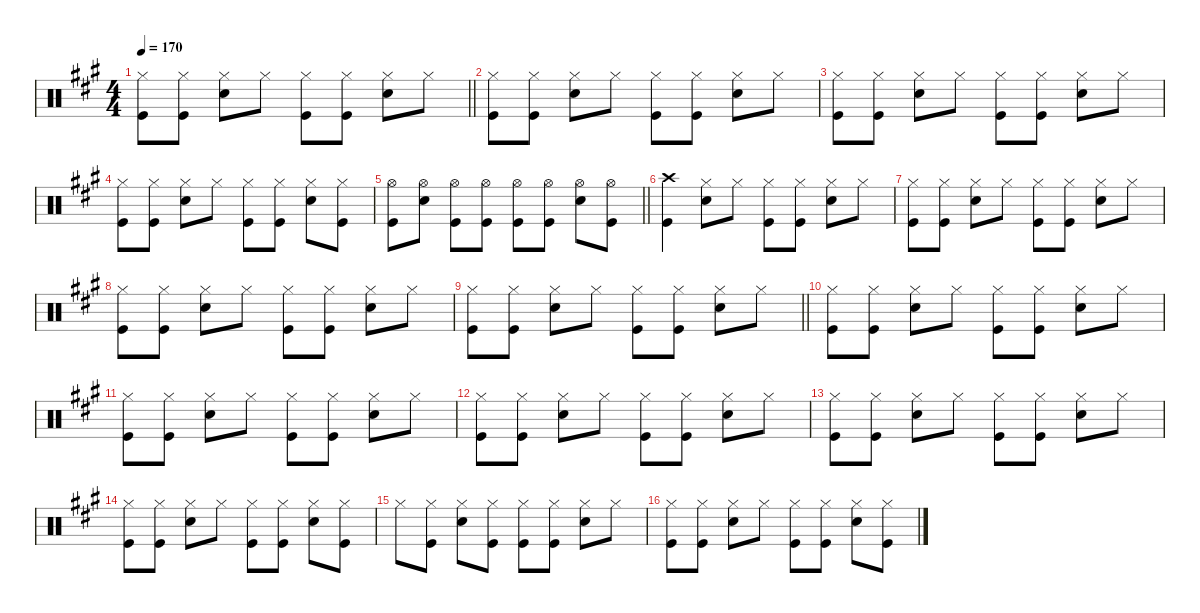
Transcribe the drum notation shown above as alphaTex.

\defaultSystemsLayout 4
\hideDynamics
\bracketExtendMode nobrackets
\singleTrackTrackNamePolicy hidden
\multiTrackTrackNamePolicy hidden
\firstSystemTrackNameMode fullname
\firstSystemTrackNameOrientation horizontal
\otherSystemsTrackNameOrientation horizontal
\track ("Percussion" "drm.") {defaultSystemsLayout 4 instrument percussion}
\staff {score}
\articulation defaults
\ts (4 4)
\tempo 170
\clef neutral
\barLineRight lightlight
\ks a
("Hi-Hat (closed)"{acc forcenatural} "Kick (hit)"{acc forcenatural}).8{dy f beam Down} ("Hi-Hat (closed)"{acc forcenatural} "Kick (hit)"{acc forcenatural}).8{beam Down} ("Hi-Hat (closed)"{acc forcenatural} "Snare (hit) 2"{acc forcenatural}).8{beam Down} "Hi-Hat (closed)"{acc forcenatural}.8{beam Down} ("Hi-Hat (closed)"{acc forcenatural} "Kick (hit)"{acc forcenatural}).8{beam Down} ("Hi-Hat (closed)"{acc forcenatural} "Kick (hit)"{acc forcenatural}).8{beam Down} ("Hi-Hat (closed)"{acc forcenatural} "Snare (hit) 2"{acc forcenatural}).8{beam Down} "Hi-Hat (closed)"{acc forcenatural}.8{beam Down} |
("Hi-Hat (closed)"{acc forcenatural} "Kick (hit)"{acc forcenatural}).8{beam Down} ("Hi-Hat (closed)"{acc forcenatural} "Kick (hit)"{acc forcenatural}).8{beam Down} ("Hi-Hat (closed)"{acc forcenatural} "Snare (hit) 2"{acc forcenatural}).8{beam Down} "Hi-Hat (closed)"{acc forcenatural}.8{beam Down} ("Hi-Hat (closed)"{acc forcenatural} "Kick (hit)"{acc forcenatural}).8{beam Down} ("Hi-Hat (closed)"{acc forcenatural} "Kick (hit)"{acc forcenatural}).8{beam Down} ("Hi-Hat (closed)"{acc forcenatural} "Snare (hit) 2"{acc forcenatural}).8{beam Down} "Hi-Hat (closed)"{acc forcenatural}.8{beam Down} |
("Hi-Hat (closed)"{acc forcenatural} "Kick (hit)"{acc forcenatural}).8{beam Down} ("Hi-Hat (closed)"{acc forcenatural} "Kick (hit)"{acc forcenatural}).8{beam Down} ("Hi-Hat (closed)"{acc forcenatural} "Snare (hit) 2"{acc forcenatural}).8{beam Down} "Hi-Hat (closed)"{acc forcenatural}.8{beam Down} ("Hi-Hat (closed)"{acc forcenatural} "Kick (hit)"{acc forcenatural}).8{beam Down} ("Hi-Hat (closed)"{acc forcenatural} "Kick (hit)"{acc forcenatural}).8{beam Down} ("Hi-Hat (closed)"{acc forcenatural} "Snare (hit) 2"{acc forcenatural}).8{beam Down} "Hi-Hat (closed)"{acc forcenatural}.8{beam Down} |
("Hi-Hat (closed)"{acc forcenatural} "Kick (hit)"{acc forcenatural}).8{beam Down} ("Hi-Hat (closed)"{acc forcenatural} "Kick (hit)"{acc forcenatural}).8{beam Down} ("Hi-Hat (closed)"{acc forcenatural} "Snare (hit) 2"{acc forcenatural}).8{beam Down} "Hi-Hat (closed)"{acc forcenatural}.8{beam Down} ("Hi-Hat (closed)"{acc forcenatural} "Kick (hit)"{acc forcenatural}).8{beam Down} ("Hi-Hat (closed)"{acc forcenatural} "Kick (hit)"{acc forcenatural}).8{beam Down} ("Hi-Hat (closed)"{acc forcenatural} "Snare (hit) 2"{acc forcenatural}).8{beam Down} ("Hi-Hat (closed)"{acc forcenatural} "Kick (hit)"{acc forcenatural}).8{beam Down} |
\barLineRight lightlight
("Hi-Hat (open)"{acc forcenatural} "Kick (hit)"{acc forcenatural}).8{beam Down} ("Hi-Hat (open)"{acc forcenatural} "Snare (hit) 2"{acc forcenatural}).8{beam Down} ("Hi-Hat (open)"{acc forcenatural} "Kick (hit)"{acc forcenatural}).8{beam Down} ("Hi-Hat (open)"{acc forcenatural} "Kick (hit)"{acc forcenatural}).8{beam Down} ("Hi-Hat (open)"{acc forcenatural} "Kick (hit)"{acc forcenatural}).8{beam Down} ("Hi-Hat (open)"{acc forcenatural} "Kick (hit)"{acc forcenatural}).8{beam Down} ("Hi-Hat (open)"{acc forcenatural} "Snare (hit) 2"{acc forcenatural}).8{beam Down} ("Hi-Hat (open)"{acc forcenatural} "Kick (hit)"{acc forcenatural}).8{beam Down} |
("Crash high (hit)"{acc forcenatural} "Kick (hit)"{acc forcenatural}).4{beam Down} ("Hi-Hat (closed)"{acc forcenatural} "Snare (hit) 2"{acc forcenatural}).8{beam Down} "Hi-Hat (closed)"{acc forcenatural}.8{beam Down} ("Hi-Hat (closed)"{acc forcenatural} "Kick (hit)"{acc forcenatural}).8{beam Down} ("Hi-Hat (closed)"{acc forcenatural} "Kick (hit)"{acc forcenatural}).8{beam Down} ("Hi-Hat (closed)"{acc forcenatural} "Snare (hit) 2"{acc forcenatural}).8{beam Down} "Hi-Hat (closed)"{acc forcenatural}.8{beam Down} |
("Hi-Hat (closed)"{acc forcenatural} "Kick (hit)"{acc forcenatural}).8{beam Down} ("Hi-Hat (closed)"{acc forcenatural} "Kick (hit)"{acc forcenatural}).8{beam Down} ("Hi-Hat (closed)"{acc forcenatural} "Snare (hit) 2"{acc forcenatural}).8{beam Down} "Hi-Hat (closed)"{acc forcenatural}.8{beam Down} ("Hi-Hat (closed)"{acc forcenatural} "Kick (hit)"{acc forcenatural}).8{beam Down} ("Hi-Hat (closed)"{acc forcenatural} "Kick (hit)"{acc forcenatural}).8{beam Down} ("Hi-Hat (closed)"{acc forcenatural} "Snare (hit) 2"{acc forcenatural}).8{beam Down} "Hi-Hat (closed)"{acc forcenatural}.8{beam Down} |
("Hi-Hat (closed)"{acc forcenatural} "Kick (hit)"{acc forcenatural}).8{beam Down} ("Hi-Hat (closed)"{acc forcenatural} "Kick (hit)"{acc forcenatural}).8{beam Down} ("Hi-Hat (closed)"{acc forcenatural} "Snare (hit) 2"{acc forcenatural}).8{beam Down} "Hi-Hat (closed)"{acc forcenatural}.8{beam Down} ("Hi-Hat (closed)"{acc forcenatural} "Kick (hit)"{acc forcenatural}).8{beam Down} ("Hi-Hat (closed)"{acc forcenatural} "Kick (hit)"{acc forcenatural}).8{beam Down} ("Hi-Hat (closed)"{acc forcenatural} "Snare (hit) 2"{acc forcenatural}).8{beam Down} "Hi-Hat (closed)"{acc forcenatural}.8{beam Down} |
\barLineRight lightlight
("Hi-Hat (closed)"{acc forcenatural} "Kick (hit)"{acc forcenatural}).8{beam Down} ("Hi-Hat (closed)"{acc forcenatural} "Kick (hit)"{acc forcenatural}).8{beam Down} ("Hi-Hat (closed)"{acc forcenatural} "Snare (hit) 2"{acc forcenatural}).8{beam Down} "Hi-Hat (closed)"{acc forcenatural}.8{beam Down} ("Hi-Hat (closed)"{acc forcenatural} "Kick (hit)"{acc forcenatural}).8{beam Down} ("Hi-Hat (closed)"{acc forcenatural} "Kick (hit)"{acc forcenatural}).8{beam Down} ("Hi-Hat (closed)"{acc forcenatural} "Snare (hit) 2"{acc forcenatural}).8{beam Down} "Hi-Hat (closed)"{acc forcenatural}.8{beam Down} |
("Hi-Hat (closed)"{acc forcenatural} "Kick (hit)"{acc forcenatural}).8{beam Down} ("Hi-Hat (closed)"{acc forcenatural} "Kick (hit)"{acc forcenatural}).8{beam Down} ("Hi-Hat (closed)"{acc forcenatural} "Snare (hit) 2"{acc forcenatural}).8{beam Down} "Hi-Hat (closed)"{acc forcenatural}.8{beam Down} ("Hi-Hat (closed)"{acc forcenatural} "Kick (hit)"{acc forcenatural}).8{beam Down} ("Hi-Hat (closed)"{acc forcenatural} "Kick (hit)"{acc forcenatural}).8{beam Down} ("Hi-Hat (closed)"{acc forcenatural} "Snare (hit) 2"{acc forcenatural}).8{beam Down} "Hi-Hat (closed)"{acc forcenatural}.8{beam Down} |
("Hi-Hat (closed)"{acc forcenatural} "Kick (hit)"{acc forcenatural}).8{beam Down} ("Hi-Hat (closed)"{acc forcenatural} "Kick (hit)"{acc forcenatural}).8{beam Down} ("Hi-Hat (closed)"{acc forcenatural} "Snare (hit) 2"{acc forcenatural}).8{beam Down} "Hi-Hat (closed)"{acc forcenatural}.8{beam Down} ("Hi-Hat (closed)"{acc forcenatural} "Kick (hit)"{acc forcenatural}).8{beam Down} ("Hi-Hat (closed)"{acc forcenatural} "Kick (hit)"{acc forcenatural}).8{beam Down} ("Hi-Hat (closed)"{acc forcenatural} "Snare (hit) 2"{acc forcenatural}).8{beam Down} "Hi-Hat (closed)"{acc forcenatural}.8{beam Down} |
("Hi-Hat (closed)"{acc forcenatural} "Kick (hit)"{acc forcenatural}).8{beam Down} ("Hi-Hat (closed)"{acc forcenatural} "Kick (hit)"{acc forcenatural}).8{beam Down} ("Hi-Hat (closed)"{acc forcenatural} "Snare (hit) 2"{acc forcenatural}).8{beam Down} "Hi-Hat (closed)"{acc forcenatural}.8{beam Down} ("Hi-Hat (closed)"{acc forcenatural} "Kick (hit)"{acc forcenatural}).8{beam Down} ("Hi-Hat (closed)"{acc forcenatural} "Kick (hit)"{acc forcenatural}).8{beam Down} ("Hi-Hat (closed)"{acc forcenatural} "Snare (hit) 2"{acc forcenatural}).8{beam Down} "Hi-Hat (closed)"{acc forcenatural}.8{beam Down} |
("Hi-Hat (closed)"{acc forcenatural} "Kick (hit)"{acc forcenatural}).8{beam Down} ("Hi-Hat (closed)"{acc forcenatural} "Kick (hit)"{acc forcenatural}).8{beam Down} ("Hi-Hat (closed)"{acc forcenatural} "Snare (hit) 2"{acc forcenatural}).8{beam Down} "Hi-Hat (closed)"{acc forcenatural}.8{beam Down} ("Hi-Hat (closed)"{acc forcenatural} "Kick (hit)"{acc forcenatural}).8{beam Down} ("Hi-Hat (closed)"{acc forcenatural} "Kick (hit)"{acc forcenatural}).8{beam Down} ("Hi-Hat (closed)"{acc forcenatural} "Snare (hit) 2"{acc forcenatural}).8{beam Down} "Hi-Hat (closed)"{acc forcenatural}.8{beam Down} |
("Hi-Hat (closed)"{acc forcenatural} "Kick (hit)"{acc forcenatural}).8{beam Down} ("Hi-Hat (closed)"{acc forcenatural} "Kick (hit)"{acc forcenatural}).8{beam Down} ("Hi-Hat (closed)"{acc forcenatural} "Snare (hit) 2"{acc forcenatural}).8{beam Down} "Hi-Hat (closed)"{acc forcenatural}.8{beam Down} ("Hi-Hat (closed)"{acc forcenatural} "Kick (hit)"{acc forcenatural}).8{beam Down} ("Hi-Hat (closed)"{acc forcenatural} "Kick (hit)"{acc forcenatural}).8{beam Down} ("Hi-Hat (closed)"{acc forcenatural} "Snare (hit) 2"{acc forcenatural}).8{beam Down} ("Hi-Hat (closed)"{acc forcenatural} "Kick (hit)"{acc forcenatural}).8{beam Down} |
"Hi-Hat (closed)"{acc forcenatural}.8{beam Down} ("Hi-Hat (closed)"{acc forcenatural} "Kick (hit)"{acc forcenatural}).8{beam Down} ("Hi-Hat (closed)"{acc forcenatural} "Snare (hit) 2"{acc forcenatural}).8{beam Down} ("Hi-Hat (closed)"{acc forcenatural} "Kick (hit)"{acc forcenatural}).8{beam Down} ("Hi-Hat (closed)"{acc forcenatural} "Kick (hit)"{acc forcenatural}).8{beam Down} ("Hi-Hat (closed)"{acc forcenatural} "Kick (hit)"{acc forcenatural}).8{beam Down} ("Hi-Hat (closed)"{acc forcenatural} "Snare (hit) 2"{acc forcenatural}).8{beam Down} "Hi-Hat (closed)"{acc forcenatural}.8{beam Down} |
("Hi-Hat (closed)"{acc forcenatural} "Kick (hit)"{acc forcenatural}).8{beam Down} ("Hi-Hat (closed)"{acc forcenatural} "Kick (hit)"{acc forcenatural}).8{beam Down} ("Hi-Hat (closed)"{acc forcenatural} "Snare (hit) 2"{acc forcenatural}).8{beam Down} "Hi-Hat (closed)"{acc forcenatural}.8{beam Down} ("Hi-Hat (closed)"{acc forcenatural} "Kick (hit)"{acc forcenatural}).8{beam Down} ("Hi-Hat (closed)"{acc forcenatural} "Kick (hit)"{acc forcenatural}).8{beam Down} ("Hi-Hat (closed)"{acc forcenatural} "Snare (hit) 2"{acc forcenatural}).8{beam Down} ("Hi-Hat (closed)"{acc forcenatural} "Kick (hit)"{acc forcenatural}).8{beam Down}
